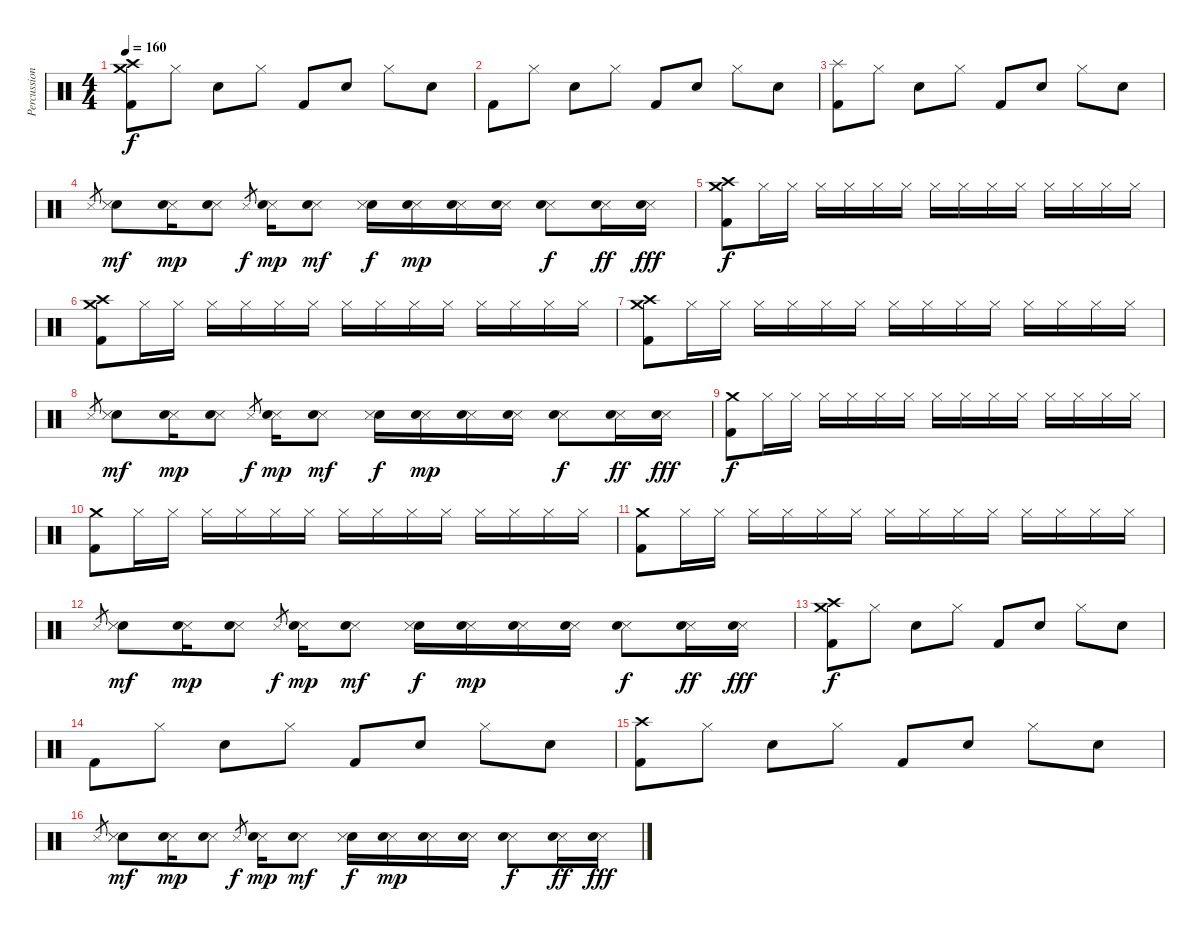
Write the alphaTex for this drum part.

\track ("Percussion" "Percussion") {instrument percussion}
\staff {score}
\articulation defaults
\ts (4 4)
\tempo 160
\clef neutral
\ks c
("Kick (hit) 2" "Crash high (hit)" "Crash medium (hit)").8{dy f} "Hi-Hat (closed)".8 "Electric Snare (hit)".8 "Hi-Hat (closed)".8 "Kick (hit) 2".8 "Electric Snare (hit)".8 "Hi-Hat (closed)".8 "Electric Snare (hit)".8 |
"Kick (hit) 2".8 "Hi-Hat (closed)".8 "Electric Snare (hit)".8 "Hi-Hat (closed)".8 "Kick (hit) 2".8 "Electric Snare (hit)".8 "Hi-Hat (closed)".8 "Electric Snare (hit)".8 |
("Kick (hit) 2" "Splash (hit)").8 "Hi-Hat (closed)".8 "Electric Snare (hit)".8 "Hi-Hat (closed)".8 "Kick (hit) 2".8 "Electric Snare (hit)".8 "Hi-Hat (closed)".8 "Electric Snare (hit)".8 |
"Snare (side stick) 3".8{gr} ("Electric Snare (hit)" "Snare (side stick) 3").8{dy mf} ("Snare (side stick) 3" "Electric Snare (hit)").16{dy mp} ("Snare (side stick) 3" "Electric Snare (hit)").8 "Snare (side stick) 3".8{gr dy f} ("Snare (side stick) 3" "Electric Snare (hit)").16{dy mp} ("Snare (side stick) 3" "Electric Snare (hit)").8{dy mf} ("Electric Snare (hit)" "Snare (side stick) 3").16{dy f} ("Snare (side stick) 3" "Electric Snare (hit)").16{dy mp} ("Snare (side stick) 3" "Electric Snare (hit)").16 ("Snare (side stick) 3" "Electric Snare (hit)").16 ("Snare (side stick) 3" "Electric Snare (hit)").8{dy f} ("Snare (side stick) 3" "Electric Snare (hit)").16{dy ff} ("Snare (side stick) 3" "Electric Snare (hit)").16{dy fff} |
("Kick (hit) 2" "Crash high (hit)" "Crash medium (hit)").8{dy f volume 15} "Hi-Hat (closed)".16 "Hi-Hat (closed)".16 "Hi-Hat (closed)".16 "Hi-Hat (closed)".16 "Hi-Hat (closed)".16 "Hi-Hat (closed)".16 "Hi-Hat (closed)".16 "Hi-Hat (closed)".16 "Hi-Hat (closed)".16 "Hi-Hat (closed)".16 "Hi-Hat (closed)".16 "Hi-Hat (closed)".16 "Hi-Hat (closed)".16 "Hi-Hat (closed)".16 |
("Kick (hit) 2" "Crash high (hit)" "Crash medium (hit)").8 "Hi-Hat (closed)".16 "Hi-Hat (closed)".16 "Hi-Hat (closed)".16 "Hi-Hat (closed)".16 "Hi-Hat (closed)".16 "Hi-Hat (closed)".16 "Hi-Hat (closed)".16 "Hi-Hat (closed)".16 "Hi-Hat (closed)".16 "Hi-Hat (closed)".16 "Hi-Hat (closed)".16 "Hi-Hat (closed)".16 "Hi-Hat (closed)".16 "Hi-Hat (closed)".16 |
("Kick (hit) 2" "Crash high (hit)" "Crash medium (hit)").8 "Hi-Hat (closed)".16 "Hi-Hat (closed)".16 "Hi-Hat (closed)".16 "Hi-Hat (closed)".16 "Hi-Hat (closed)".16 "Hi-Hat (closed)".16 "Hi-Hat (closed)".16 "Hi-Hat (closed)".16 "Hi-Hat (closed)".16 "Hi-Hat (closed)".16 "Hi-Hat (closed)".16 "Hi-Hat (closed)".16 "Hi-Hat (closed)".16 "Hi-Hat (closed)".16 |
"Snare (side stick) 3".8{gr} ("Electric Snare (hit)" "Snare (side stick) 3").8{dy mf volume 12} ("Snare (side stick) 3" "Electric Snare (hit)").16{dy mp} ("Snare (side stick) 3" "Electric Snare (hit)").8 "Snare (side stick) 3".8{gr dy f} ("Snare (side stick) 3" "Electric Snare (hit)").16{dy mp} ("Snare (side stick) 3" "Electric Snare (hit)").8{dy mf} ("Electric Snare (hit)" "Snare (side stick) 3").16{dy f} ("Snare (side stick) 3" "Electric Snare (hit)").16{dy mp} ("Snare (side stick) 3" "Electric Snare (hit)").16 ("Snare (side stick) 3" "Electric Snare (hit)").16 ("Snare (side stick) 3" "Electric Snare (hit)").8{dy f} ("Snare (side stick) 3" "Electric Snare (hit)").16{dy ff} ("Snare (side stick) 3" "Electric Snare (hit)").16{dy fff} |
("Kick (hit) 2" "Crash medium (hit)").8{dy f volume 15} "Hi-Hat (closed)".16 "Hi-Hat (closed)".16 "Hi-Hat (closed)".16 "Hi-Hat (closed)".16 "Hi-Hat (closed)".16 "Hi-Hat (closed)".16 "Hi-Hat (closed)".16 "Hi-Hat (closed)".16 "Hi-Hat (closed)".16 "Hi-Hat (closed)".16 "Hi-Hat (closed)".16 "Hi-Hat (closed)".16 "Hi-Hat (closed)".16 "Hi-Hat (closed)".16 |
("Kick (hit) 2" "Crash medium (hit)").8 "Hi-Hat (closed)".16 "Hi-Hat (closed)".16 "Hi-Hat (closed)".16 "Hi-Hat (closed)".16 "Hi-Hat (closed)".16 "Hi-Hat (closed)".16 "Hi-Hat (closed)".16 "Hi-Hat (closed)".16 "Hi-Hat (closed)".16 "Hi-Hat (closed)".16 "Hi-Hat (closed)".16 "Hi-Hat (closed)".16 "Hi-Hat (closed)".16 "Hi-Hat (closed)".16 |
("Kick (hit) 2" "Crash medium (hit)").8 "Hi-Hat (closed)".16 "Hi-Hat (closed)".16 "Hi-Hat (closed)".16 "Hi-Hat (closed)".16 "Hi-Hat (closed)".16 "Hi-Hat (closed)".16 "Hi-Hat (closed)".16 "Hi-Hat (closed)".16 "Hi-Hat (closed)".16 "Hi-Hat (closed)".16 "Hi-Hat (closed)".16 "Hi-Hat (closed)".16 "Hi-Hat (closed)".16 "Hi-Hat (closed)".16 |
"Snare (side stick) 3".8{gr} ("Electric Snare (hit)" "Snare (side stick) 3").8{dy mf volume 12} ("Snare (side stick) 3" "Electric Snare (hit)").16{dy mp} ("Snare (side stick) 3" "Electric Snare (hit)").8 "Snare (side stick) 3".8{gr dy f} ("Snare (side stick) 3" "Electric Snare (hit)").16{dy mp} ("Snare (side stick) 3" "Electric Snare (hit)").8{dy mf} ("Electric Snare (hit)" "Snare (side stick) 3").16{dy f} ("Snare (side stick) 3" "Electric Snare (hit)").16{dy mp} ("Snare (side stick) 3" "Electric Snare (hit)").16 ("Snare (side stick) 3" "Electric Snare (hit)").16 ("Snare (side stick) 3" "Electric Snare (hit)").8{dy f} ("Snare (side stick) 3" "Electric Snare (hit)").16{dy ff} ("Snare (side stick) 3" "Electric Snare (hit)").16{dy fff} |
("Kick (hit) 2" "Crash high (hit)" "Crash medium (hit)").8{dy f} "Hi-Hat (closed)".8 "Electric Snare (hit)".8 "Hi-Hat (closed)".8 "Kick (hit) 2".8 "Electric Snare (hit)".8 "Hi-Hat (closed)".8 "Electric Snare (hit)".8 |
"Kick (hit) 2".8 "Hi-Hat (closed)".8 "Electric Snare (hit)".8 "Hi-Hat (closed)".8 "Kick (hit) 2".8 "Electric Snare (hit)".8 "Hi-Hat (closed)".8 "Electric Snare (hit)".8 |
("Kick (hit) 2" "Crash high (hit)").8 "Hi-Hat (closed)".8 "Electric Snare (hit)".8 "Hi-Hat (closed)".8 "Kick (hit) 2".8 "Electric Snare (hit)".8 "Hi-Hat (closed)".8 "Electric Snare (hit)".8 |
"Snare (side stick) 3".8{gr} ("Electric Snare (hit)" "Snare (side stick) 3").8{dy mf} ("Snare (side stick) 3" "Electric Snare (hit)").16{dy mp} ("Snare (side stick) 3" "Electric Snare (hit)").8 "Snare (side stick) 3".8{gr dy f} ("Snare (side stick) 3" "Electric Snare (hit)").16{dy mp} ("Snare (side stick) 3" "Electric Snare (hit)").8{dy mf} ("Electric Snare (hit)" "Snare (side stick) 3").16{dy f} ("Snare (side stick) 3" "Electric Snare (hit)").16{dy mp} ("Snare (side stick) 3" "Electric Snare (hit)").16 ("Snare (side stick) 3" "Electric Snare (hit)").16 ("Snare (side stick) 3" "Electric Snare (hit)").8{dy f} ("Snare (side stick) 3" "Electric Snare (hit)").16{dy ff} ("Snare (side stick) 3" "Electric Snare (hit)").16{dy fff}
